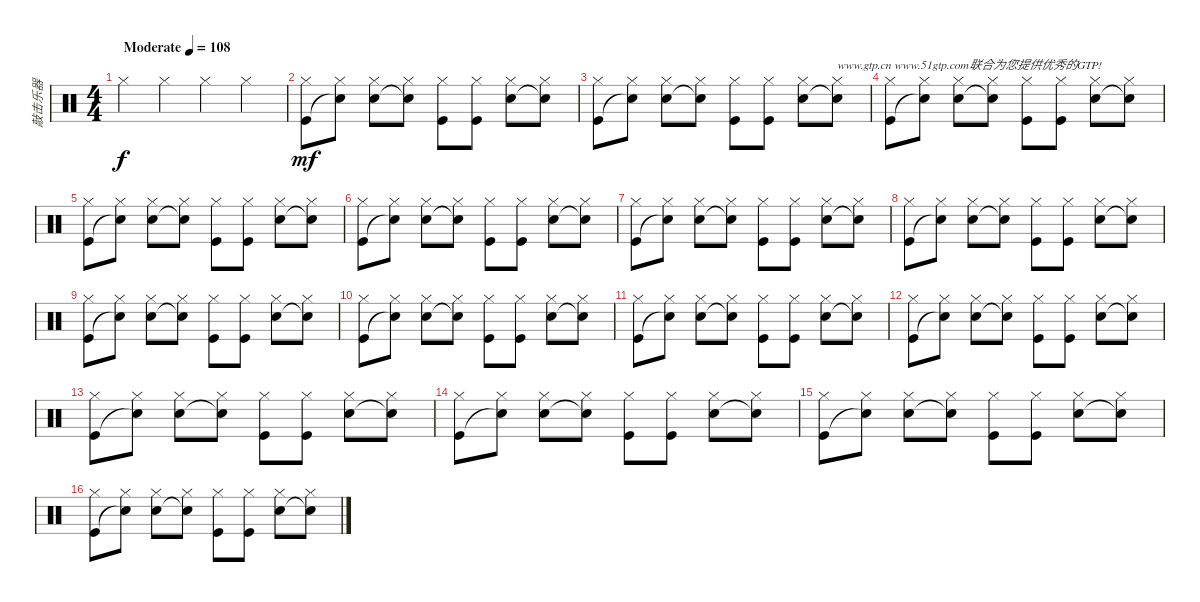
\track ("敲击乐器" "敲击乐器") {instrument percussion}
\staff {score}
\articulation defaults
\ts (4 4)
\tempo (108 "Moderate")
\clef neutral
\ks c "Hi-Hat (closed)".4{dy f} "Hi-Hat (closed)".4 "Hi-Hat (closed)".4 "Hi-Hat (closed)".4
|
("Hi-Hat (closed)" "Kick (hit)").8{dy mf} ("Hi-Hat (closed)" "Snare (hit)"{t}).8 ("Hi-Hat (closed)" "Electric Snare (hit)").8 ("Hi-Hat (closed)" "Snare (hit)"{t}).8 ("Hi-Hat (closed)" "Kick (hit)").8 ("Hi-Hat (closed)" "Kick (hit)").8 ("Hi-Hat (closed)" "Electric Snare (hit)").8 ("Hi-Hat (closed)" "Snare (hit)"{t}).8 |
("Hi-Hat (closed)" "Kick (hit)").8 ("Hi-Hat (closed)" "Snare (hit)"{t}).8 ("Hi-Hat (closed)" "Electric Snare (hit)").8 ("Hi-Hat (closed)" "Snare (hit)"{t}).8 ("Hi-Hat (closed)" "Kick (hit)").8 ("Hi-Hat (closed)" "Kick (hit)").8 ("Hi-Hat (closed)" "Electric Snare (hit)").8 ("Hi-Hat (closed)" "Snare (hit)"{t}).8{txt "www.gtp.cn www.51gtp.com联合为您提供优秀的GTP!"} |
("Hi-Hat (closed)" "Kick (hit)").8 ("Hi-Hat (closed)" "Snare (hit)"{t}).8 ("Hi-Hat (closed)" "Electric Snare (hit)").8 ("Hi-Hat (closed)" "Snare (hit)"{t}).8 ("Hi-Hat (closed)" "Kick (hit)").8 ("Hi-Hat (closed)" "Kick (hit)").8 ("Hi-Hat (closed)" "Electric Snare (hit)").8 ("Hi-Hat (closed)" "Snare (hit)"{t}).8 |
("Hi-Hat (closed)" "Kick (hit)").8 ("Hi-Hat (closed)" "Snare (hit)"{t}).8 ("Hi-Hat (closed)" "Electric Snare (hit)").8 ("Hi-Hat (closed)" "Snare (hit)"{t}).8 ("Hi-Hat (closed)" "Kick (hit)").8 ("Hi-Hat (closed)" "Kick (hit)").8 ("Hi-Hat (closed)" "Electric Snare (hit)").8 ("Hi-Hat (closed)" "Snare (hit)"{t}).8 |
("Hi-Hat (closed)" "Kick (hit)").8 ("Hi-Hat (closed)" "Snare (hit)"{t}).8 ("Hi-Hat (closed)" "Electric Snare (hit)").8 ("Hi-Hat (closed)" "Snare (hit)"{t}).8 ("Hi-Hat (closed)" "Kick (hit)").8 ("Hi-Hat (closed)" "Kick (hit)").8 ("Hi-Hat (closed)" "Electric Snare (hit)").8 ("Hi-Hat (closed)" "Snare (hit)"{t}).8 |
("Hi-Hat (closed)" "Kick (hit)").8 ("Hi-Hat (closed)" "Snare (hit)"{t}).8 ("Hi-Hat (closed)" "Electric Snare (hit)").8 ("Hi-Hat (closed)" "Snare (hit)"{t}).8 ("Hi-Hat (closed)" "Kick (hit)").8 ("Hi-Hat (closed)" "Kick (hit)").8 ("Hi-Hat (closed)" "Electric Snare (hit)").8 ("Hi-Hat (closed)" "Snare (hit)"{t}).8 |
("Hi-Hat (closed)" "Kick (hit)").8 ("Hi-Hat (closed)" "Snare (hit)"{t}).8 ("Hi-Hat (closed)" "Electric Snare (hit)").8 ("Hi-Hat (closed)" "Snare (hit)"{t}).8 ("Hi-Hat (closed)" "Kick (hit)").8 ("Hi-Hat (closed)" "Kick (hit)").8 ("Hi-Hat (closed)" "Electric Snare (hit)").8 ("Hi-Hat (closed)" "Snare (hit)"{t}).8 |
("Hi-Hat (closed)" "Kick (hit)").8 ("Hi-Hat (closed)" "Snare (hit)"{t}).8 ("Hi-Hat (closed)" "Electric Snare (hit)").8 ("Hi-Hat (closed)" "Snare (hit)"{t}).8 ("Hi-Hat (closed)" "Kick (hit)").8 ("Hi-Hat (closed)" "Kick (hit)").8 ("Hi-Hat (closed)" "Electric Snare (hit)").8 ("Hi-Hat (closed)" "Snare (hit)"{t}).8 |
("Hi-Hat (closed)" "Kick (hit)").8 ("Hi-Hat (closed)" "Snare (hit)"{t}).8 ("Hi-Hat (closed)" "Electric Snare (hit)").8 ("Hi-Hat (closed)" "Snare (hit)"{t}).8 ("Hi-Hat (closed)" "Kick (hit)").8 ("Hi-Hat (closed)" "Kick (hit)").8 ("Hi-Hat (closed)" "Electric Snare (hit)").8 ("Hi-Hat (closed)" "Snare (hit)"{t}).8 |
("Hi-Hat (closed)" "Kick (hit)").8 ("Hi-Hat (closed)" "Snare (hit)"{t}).8 ("Hi-Hat (closed)" "Electric Snare (hit)").8 ("Hi-Hat (closed)" "Snare (hit)"{t}).8 ("Hi-Hat (closed)" "Kick (hit)").8 ("Hi-Hat (closed)" "Kick (hit)").8 ("Hi-Hat (closed)" "Electric Snare (hit)").8 ("Hi-Hat (closed)" "Snare (hit)"{t}).8 |
("Hi-Hat (closed)" "Kick (hit)").8 ("Hi-Hat (closed)" "Snare (hit)"{t}).8 ("Hi-Hat (closed)" "Electric Snare (hit)").8 ("Hi-Hat (closed)" "Snare (hit)"{t}).8 ("Hi-Hat (closed)" "Kick (hit)").8 ("Hi-Hat (closed)" "Kick (hit)").8 ("Hi-Hat (closed)" "Electric Snare (hit)").8 ("Hi-Hat (closed)" "Snare (hit)"{t}).8 |
("Hi-Hat (closed)" "Kick (hit)").8 ("Hi-Hat (closed)" "Snare (hit)"{t}).8 ("Hi-Hat (closed)" "Electric Snare (hit)").8 ("Hi-Hat (closed)" "Snare (hit)"{t}).8 ("Hi-Hat (closed)" "Kick (hit)").8 ("Hi-Hat (closed)" "Kick (hit)").8 ("Hi-Hat (closed)" "Electric Snare (hit)").8 ("Hi-Hat (closed)" "Snare (hit)"{t}).8 |
("Hi-Hat (closed)" "Kick (hit)").8 ("Hi-Hat (closed)" "Snare (hit)"{t}).8 ("Hi-Hat (closed)" "Electric Snare (hit)").8 ("Hi-Hat (closed)" "Snare (hit)"{t}).8 ("Hi-Hat (closed)" "Kick (hit)").8 ("Hi-Hat (closed)" "Kick (hit)").8 ("Hi-Hat (closed)" "Electric Snare (hit)").8 ("Hi-Hat (closed)" "Snare (hit)"{t}).8 |
("Hi-Hat (closed)" "Kick (hit)").8 ("Hi-Hat (closed)" "Snare (hit)"{t}).8 ("Hi-Hat (closed)" "Electric Snare (hit)").8 ("Hi-Hat (closed)" "Snare (hit)"{t}).8 ("Hi-Hat (closed)" "Kick (hit)").8 ("Hi-Hat (closed)" "Kick (hit)").8 ("Hi-Hat (closed)" "Electric Snare (hit)").8 ("Hi-Hat (closed)" "Snare (hit)"{t}).8 |
("Hi-Hat (closed)" "Kick (hit)").8 ("Hi-Hat (closed)" "Snare (hit)"{t}).8 ("Hi-Hat (closed)" "Electric Snare (hit)").8 ("Hi-Hat (closed)" "Snare (hit)"{t}).8 ("Hi-Hat (closed)" "Kick (hit)").8 ("Hi-Hat (closed)" "Kick (hit)").8 ("Hi-Hat (closed)" "Electric Snare (hit)").8 ("Hi-Hat (closed)" "Snare (hit)"{t}).8
